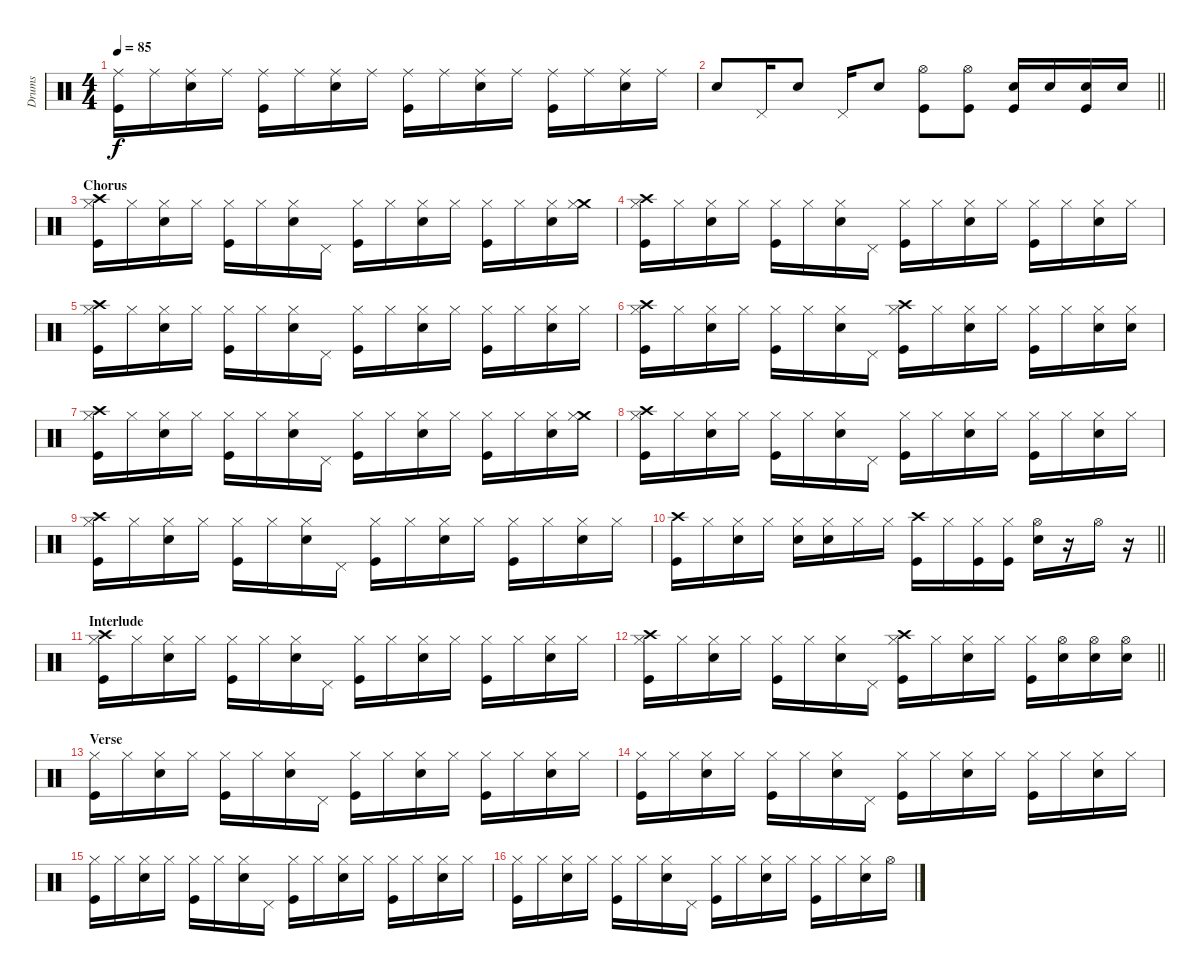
\track ("Drums" "Drums") {instrument percussion}
\staff {score}
\articulation defaults
\ts (4 4)
\tempo 85
\clef neutral
\ks c
("Ride (middle)" "Kick (hit)").16{dy f} "Ride (middle)".16 ("Ride (middle)" "Electric Snare (hit)").16 "Ride (middle)".16 ("Ride (middle)" "Kick (hit)").16 "Ride (middle)".16 ("Ride (middle)" "Electric Snare (hit)").16 "Ride (middle)".16 ("Ride (middle)" "Kick (hit)").16 "Ride (middle)".16 ("Ride (middle)" "Electric Snare (hit)").16 "Ride (middle)".16 ("Ride (middle)" "Kick (hit)").16 "Ride (middle)".16 ("Ride (middle)" "Electric Snare (hit)").16 "Ride (middle)".16 |
\barLineRight lightlight "Electric Snare (hit)".8 "Pedal Hi-Hat (hit)".16 "Electric Snare (hit)".8 "Pedal Hi-Hat (hit)".16 "Electric Snare (hit)".8
("Hi-Hat (open)" "Kick (hit)").8 ("Hi-Hat (open)" "Kick (hit)").8 ("Electric Snare (hit)" "Kick (hit)").16 "Electric Snare (hit)".16 ("Electric Snare (hit)" "Kick (hit)").16 "Electric Snare (hit)".16 |
\section ("" "Chorus")
("Crash high (hit)" "Hi-Hat (closed)" "Kick (hit)").16 "Hi-Hat (closed)".16 ("Hi-Hat (closed)" "Electric Snare (hit)").16 "Hi-Hat (closed)".16 ("Hi-Hat (closed)" "Kick (hit)").16 "Hi-Hat (closed)".16 ("Hi-Hat (closed)" "Electric Snare (hit)").16 "Pedal Hi-Hat (hit)".16 ("Hi-Hat (closed)" "Kick (hit)").16 "Hi-Hat (closed)".16 ("Hi-Hat (closed)" "Electric Snare (hit)").16 "Hi-Hat (closed)".16 ("Hi-Hat (closed)" "Kick (hit)").16 "Hi-Hat (closed)".16 ("Hi-Hat (closed)" "Electric Snare (hit)").16 ("Crash medium (hit)" "Hi-Hat (closed)").16 |
("Crash high (hit)" "Hi-Hat (closed)" "Kick (hit)").16 "Hi-Hat (closed)".16 ("Hi-Hat (closed)" "Electric Snare (hit)").16 "Hi-Hat (closed)".16 ("Hi-Hat (closed)" "Kick (hit)").16 "Hi-Hat (closed)".16 ("Hi-Hat (closed)" "Electric Snare (hit)").16 "Pedal Hi-Hat (hit)".16 ("Hi-Hat (closed)" "Kick (hit)").16 "Hi-Hat (closed)".16 ("Hi-Hat (closed)" "Electric Snare (hit)").16 "Hi-Hat (closed)".16 ("Hi-Hat (closed)" "Kick (hit)").16 "Hi-Hat (closed)".16 ("Hi-Hat (closed)" "Electric Snare (hit)").16 "Hi-Hat (closed)".16 |
("Crash high (hit)" "Hi-Hat (closed)" "Kick (hit)").16 "Hi-Hat (closed)".16 ("Hi-Hat (closed)" "Electric Snare (hit)").16 "Hi-Hat (closed)".16 ("Hi-Hat (closed)" "Kick (hit)").16 "Hi-Hat (closed)".16 ("Hi-Hat (closed)" "Electric Snare (hit)").16 "Pedal Hi-Hat (hit)".16 ("Hi-Hat (closed)" "Kick (hit)").16 "Hi-Hat (closed)".16 ("Hi-Hat (closed)" "Electric Snare (hit)").16 "Hi-Hat (closed)".16 ("Hi-Hat (closed)" "Kick (hit)").16 "Hi-Hat (closed)".16 ("Hi-Hat (closed)" "Electric Snare (hit)").16 "Hi-Hat (closed)".16 |
("Crash high (hit)" "Hi-Hat (closed)" "Kick (hit)").16 "Hi-Hat (closed)".16 ("Hi-Hat (closed)" "Electric Snare (hit)").16 "Hi-Hat (closed)".16 ("Hi-Hat (closed)" "Kick (hit)").16 "Hi-Hat (closed)".16 ("Hi-Hat (closed)" "Electric Snare (hit)").16 "Pedal Hi-Hat (hit)".16 ("Crash high (hit)" "Hi-Hat (closed)" "Kick (hit)").16 "Hi-Hat (closed)".16 ("Hi-Hat (closed)" "Electric Snare (hit)").16 "Hi-Hat (closed)".16 ("Hi-Hat (closed)" "Kick (hit)").16 "Hi-Hat (closed)".16 ("Hi-Hat (closed)" "Electric Snare (hit)").16 ("Hi-Hat (closed)" "Electric Snare (hit)").16 |
("Crash high (hit)" "Hi-Hat (closed)" "Kick (hit)").16 "Hi-Hat (closed)".16 ("Hi-Hat (closed)" "Electric Snare (hit)").16 "Hi-Hat (closed)".16 ("Hi-Hat (closed)" "Kick (hit)").16 "Hi-Hat (closed)".16 ("Hi-Hat (closed)" "Electric Snare (hit)").16 "Pedal Hi-Hat (hit)".16 ("Hi-Hat (closed)" "Kick (hit)").16 "Hi-Hat (closed)".16 ("Hi-Hat (closed)" "Electric Snare (hit)").16 "Hi-Hat (closed)".16 ("Hi-Hat (closed)" "Kick (hit)").16 "Hi-Hat (closed)".16 ("Hi-Hat (closed)" "Electric Snare (hit)").16 ("Crash medium (hit)" "Hi-Hat (closed)").16 |
("Crash high (hit)" "Hi-Hat (closed)" "Kick (hit)").16 "Hi-Hat (closed)".16 ("Hi-Hat (closed)" "Electric Snare (hit)").16 "Hi-Hat (closed)".16 ("Hi-Hat (closed)" "Kick (hit)").16 "Hi-Hat (closed)".16 ("Hi-Hat (closed)" "Electric Snare (hit)").16 "Pedal Hi-Hat (hit)".16 ("Hi-Hat (closed)" "Kick (hit)").16 "Hi-Hat (closed)".16 ("Hi-Hat (closed)" "Electric Snare (hit)").16 "Hi-Hat (closed)".16 ("Hi-Hat (closed)" "Kick (hit)").16 "Hi-Hat (closed)".16 ("Hi-Hat (closed)" "Electric Snare (hit)").16 "Hi-Hat (closed)".16 |
("Crash high (hit)" "Hi-Hat (closed)" "Kick (hit)").16 "Hi-Hat (closed)".16 ("Hi-Hat (closed)" "Electric Snare (hit)").16 "Hi-Hat (closed)".16 ("Hi-Hat (closed)" "Kick (hit)").16 "Hi-Hat (closed)".16 ("Hi-Hat (closed)" "Electric Snare (hit)").16 "Pedal Hi-Hat (hit)".16 ("Hi-Hat (closed)" "Kick (hit)").16 "Hi-Hat (closed)".16 ("Hi-Hat (closed)" "Electric Snare (hit)").16 "Hi-Hat (closed)".16 ("Hi-Hat (closed)" "Kick (hit)").16 "Hi-Hat (closed)".16 ("Hi-Hat (closed)" "Electric Snare (hit)").16 "Hi-Hat (closed)".16 |
\barLineRight lightlight
("Crash high (hit)" "Kick (hit)").16 "Hi-Hat (closed)".16 ("Hi-Hat (closed)" "Electric Snare (hit)").16 "Hi-Hat (closed)".16 ("Hi-Hat (closed)" "Electric Snare (hit)").16 ("Hi-Hat (closed)" "Electric Snare (hit)").16 "Hi-Hat (closed)".16 "Hi-Hat (closed)".16 ("Crash high (hit)" "Kick (hit)").16 "Hi-Hat (closed)".16 ("Hi-Hat (closed)" "Kick (hit)").16 ("Hi-Hat (closed)" "Kick (hit)").16 ("Hi-Hat (open)" "Electric Snare (hit)").16 r.16 "Hi-Hat (open)".16 r.16 |
\section ("" "Interlude")
("Crash high (hit)" "Hi-Hat (closed)" "Kick (hit)").16 "Hi-Hat (closed)".16 ("Hi-Hat (closed)" "Electric Snare (hit)").16 "Hi-Hat (closed)".16 ("Hi-Hat (closed)" "Kick (hit)").16 "Hi-Hat (closed)".16 ("Hi-Hat (closed)" "Electric Snare (hit)").16 "Pedal Hi-Hat (hit)".16 ("Hi-Hat (closed)" "Kick (hit)").16 "Hi-Hat (closed)".16 ("Hi-Hat (closed)" "Electric Snare (hit)").16 "Hi-Hat (closed)".16 ("Hi-Hat (closed)" "Kick (hit)").16 "Hi-Hat (closed)".16 ("Hi-Hat (closed)" "Electric Snare (hit)").16 "Hi-Hat (closed)".16 |
\barLineRight lightlight
("Crash high (hit)" "Hi-Hat (closed)" "Kick (hit)").16 "Hi-Hat (closed)".16 ("Hi-Hat (closed)" "Electric Snare (hit)").16 "Hi-Hat (closed)".16 ("Hi-Hat (closed)" "Kick (hit)").16 "Hi-Hat (closed)".16 ("Hi-Hat (closed)" "Electric Snare (hit)").16 "Pedal Hi-Hat (hit)".16 ("Crash high (hit)" "Hi-Hat (closed)" "Kick (hit)").16 "Hi-Hat (closed)".16 ("Hi-Hat (closed)" "Electric Snare (hit)").16 "Hi-Hat (closed)".16 ("Hi-Hat (closed)" "Kick (hit)").16 ("Hi-Hat (open)" "Electric Snare (hit)").16 ("Hi-Hat (open)" "Electric Snare (hit)").16 ("Hi-Hat (open)" "Electric Snare (hit)").16 |
\section ("" "Verse")
("Hi-Hat (closed)" "Kick (hit)").16 "Hi-Hat (closed)".16 ("Hi-Hat (closed)" "Electric Snare (hit)").16 "Hi-Hat (closed)".16 ("Hi-Hat (closed)" "Kick (hit)").16 "Hi-Hat (closed)".16 ("Hi-Hat (closed)" "Electric Snare (hit)").16 "Pedal Hi-Hat (hit)".16 ("Hi-Hat (closed)" "Kick (hit)").16 "Hi-Hat (closed)".16 ("Hi-Hat (closed)" "Electric Snare (hit)").16 "Hi-Hat (closed)".16 ("Hi-Hat (closed)" "Kick (hit)").16 "Hi-Hat (closed)".16 ("Hi-Hat (closed)" "Electric Snare (hit)").16 "Hi-Hat (closed)".16 |
("Hi-Hat (closed)" "Kick (hit)").16 "Hi-Hat (closed)".16 ("Hi-Hat (closed)" "Electric Snare (hit)").16 "Hi-Hat (closed)".16 ("Hi-Hat (closed)" "Kick (hit)").16 "Hi-Hat (closed)".16 ("Hi-Hat (closed)" "Electric Snare (hit)").16 "Pedal Hi-Hat (hit)".16 ("Hi-Hat (closed)" "Kick (hit)").16 "Hi-Hat (closed)".16 ("Hi-Hat (closed)" "Electric Snare (hit)").16 "Hi-Hat (closed)".16 ("Hi-Hat (closed)" "Kick (hit)").16 "Hi-Hat (closed)".16 ("Hi-Hat (closed)" "Electric Snare (hit)").16 "Hi-Hat (closed)".16 |
("Hi-Hat (closed)" "Kick (hit)").16 "Hi-Hat (closed)".16 ("Hi-Hat (closed)" "Electric Snare (hit)").16 "Hi-Hat (closed)".16 ("Hi-Hat (closed)" "Kick (hit)").16 "Hi-Hat (closed)".16 ("Hi-Hat (closed)" "Electric Snare (hit)").16 "Pedal Hi-Hat (hit)".16 ("Hi-Hat (closed)" "Kick (hit)").16 "Hi-Hat (closed)".16 ("Hi-Hat (closed)" "Electric Snare (hit)").16 "Hi-Hat (closed)".16 ("Hi-Hat (closed)" "Kick (hit)").16 "Hi-Hat (closed)".16 ("Hi-Hat (closed)" "Electric Snare (hit)").16 "Hi-Hat (closed)".16 |
("Hi-Hat (closed)" "Kick (hit)").16 "Hi-Hat (closed)".16 ("Hi-Hat (closed)" "Electric Snare (hit)").16 "Hi-Hat (closed)".16 ("Hi-Hat (closed)" "Kick (hit)").16 "Hi-Hat (closed)".16 ("Hi-Hat (closed)" "Electric Snare (hit)").16 "Pedal Hi-Hat (hit)".16 ("Hi-Hat (closed)" "Kick (hit)").16 "Hi-Hat (closed)".16 ("Hi-Hat (closed)" "Electric Snare (hit)").16 "Hi-Hat (closed)".16 ("Hi-Hat (closed)" "Kick (hit)").16 "Hi-Hat (closed)".16 ("Hi-Hat (closed)" "Electric Snare (hit)").16 "Hi-Hat (open)".16
